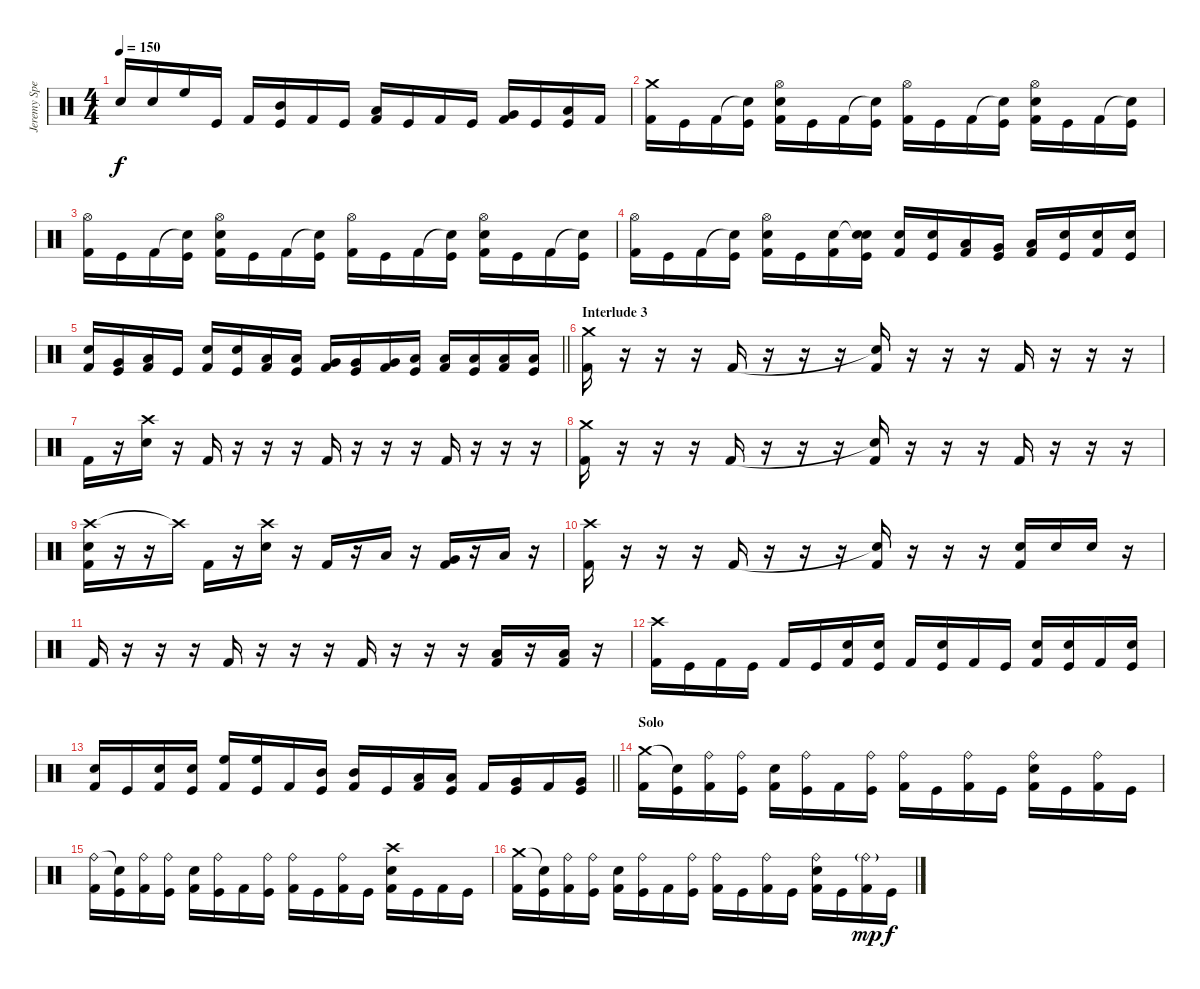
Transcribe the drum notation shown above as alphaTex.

\track ("Jeremy Spencer" "Jeremy Spe") {instrument percussion}
\staff {score}
\articulation defaults
\ts (4 4)
\tempo 150
\clef neutral
\ks c "Snare (hit) 2".16{dy f} "Snare (hit) 2".16 "High Floor Tom (hit)".16 "Kick (hit)".16 "Kick (hit) 2".16
("Mid Tom (hit)" "Kick (hit)").16 "Kick (hit) 2".16 "Kick (hit)".16 ("Low Tom (hit)" "Kick (hit) 2").16 "Kick (hit)".16 "Kick (hit) 2".16 "Kick (hit)".16 ("Very Low Tom (hit)" "Kick (hit) 2").16 "Kick (hit)".16 ("Low Floor Tom (hit)" "Kick (hit)").16 "Kick (hit) 2".16 |
("Crash medium (hit)" "Kick (hit) 2").16 "Kick (hit)".16 "Kick (hit) 2".16 ("Snare (hit)"{t} "Kick (hit)").16 ("Hi-Hat (open)" "Snare (hit) 2" "Kick (hit) 2").16 "Kick (hit)".16 "Kick (hit) 2".16 ("Snare (hit)"{t} "Kick (hit)").16 ("Hi-Hat (open)" "Kick (hit) 2").16 "Kick (hit)".16 "Kick (hit) 2".16 ("Snare (hit)"{t} "Kick (hit)").16 ("Hi-Hat (open)" "Snare (hit) 2" "Kick (hit) 2").16 "Kick (hit)".16 "Kick (hit) 2".16 ("Snare (hit)"{t} "Kick (hit)").16 |
("Hi-Hat (open)" "Kick (hit) 2").16 "Kick (hit)".16 "Kick (hit) 2".16 ("Snare (hit)"{t} "Kick (hit)").16 ("Hi-Hat (open)" "Snare (hit) 2" "Kick (hit) 2").16 "Kick (hit)".16 "Kick (hit) 2".16 ("Snare (hit)"{t} "Kick (hit)").16 ("Hi-Hat (open)" "Kick (hit) 2").16 "Kick (hit)".16 "Kick (hit) 2".16 ("Snare (hit)"{t} "Kick (hit)").16 ("Hi-Hat (open)" "Snare (hit) 2" "Kick (hit) 2").16 "Kick (hit)".16 "Kick (hit) 2".16 ("Snare (hit)"{t} "Kick (hit)").16 |
("Hi-Hat (open)" "Kick (hit) 2").16 "Kick (hit)".16 "Kick (hit) 2".16 ("Snare (hit)"{t} "Kick (hit)").16 ("Hi-Hat (open)" "Snare (hit) 2" "Kick (hit) 2").16 "Kick (hit)".16 ("Snare (hit) 2" "Kick (hit) 2").16 ("Snare (hit)"{t} "Snare (hit) 2" "Kick (hit)").16 ("Snare (hit) 2" "Kick (hit) 2").16 ("Snare (hit) 2" "Kick (hit)").16 ("Low Tom (hit)" "Kick (hit) 2").16 ("Very Low Tom (hit)" "Kick (hit)").16 ("Low Floor Tom (hit)" "Kick (hit) 2").16 ("Snare (hit) 2" "Kick (hit)").16 ("Snare (hit) 2" "Kick (hit) 2").16 ("Snare (hit) 2" "Kick (hit)").16 |
\barLineRight lightlight
("Snare (hit) 2" "Kick (hit) 2").16 ("Very Low Tom (hit)" "Kick (hit)").16 ("Low Floor Tom (hit)" "Kick (hit) 2").16 "Kick (hit)".16 ("Snare (hit) 2" "Kick (hit) 2").16 ("Snare (hit) 2" "Kick (hit)").16 ("Low Tom (hit)" "Kick (hit) 2").16 ("Low Tom (hit)" "Kick (hit)").16 ("Very Low Tom (hit)" "Kick (hit) 2").16 ("Very Low Tom (hit)" "Kick (hit)").16 ("Very Low Tom (hit)" "Kick (hit) 2").16 ("Low Floor Tom (hit)" "Kick (hit)").16 ("Low Floor Tom (hit)" "Kick (hit) 2").16 ("Low Floor Tom (hit)" "Kick (hit)").16 ("Low Floor Tom (hit)" "Kick (hit) 2").16 ("Low Floor Tom (hit)" "Kick (hit)").16 |
\section ("" "Interlude 3")
("Crash medium (hit)" "Kick (hit) 2").16 r.16 r.16 r.16 "Kick (hit) 2".16 r.16 r.16 r.16 ("Snare (hit)"{t} "Kick (hit) 2").16 r.16 r.16 r.16 "Kick (hit) 2".16 r.16 r.16 r.16 |
"Kick (hit) 2".16 r.16 ("Crash high (hit)" "Snare (hit) 2").16 r.16 "Kick (hit) 2".16 r.16 r.16 r.16 "Kick (hit) 2".16 r.16 r.16 r.16 "Kick (hit) 2".16 r.16 r.16 r.16 |
("Crash medium (hit)" "Kick (hit) 2").16 r.16 r.16 r.16 "Kick (hit) 2".16 r.16 r.16 r.16 ("Snare (hit)"{t} "Kick (hit) 2").16 r.16 r.16 r.16 "Kick (hit) 2".16 r.16 r.16 r.16 |
("Crash high (hit)" "Snare (hit) 2" "Kick (hit) 2").16 r.16 r.16 "Crash high (hit)"{t}.16 "Kick (hit) 2".16 r.16 ("Crash high (hit)" "Snare (hit) 2").16 r.16 "Kick (hit) 2".16 r.16 "Low Tom (hit)".16 r.16 ("Very Low Tom (hit)" "Kick (hit) 2").16 r.16 "Low Floor Tom (hit)".16 r.16 |
("Crash high (hit)" "Kick (hit) 2").16 r.16 r.16 r.16 "Kick (hit) 2".16 r.16 r.16 r.16 ("Snare (hit)"{t} "Kick (hit) 2").16 r.16 r.16 r.16 ("Snare (hit) 2" "Kick (hit) 2").16 "Snare (hit) 2".16 "Snare (hit) 2".16 r.16 |
"Kick (hit) 2".16 r.16 r.16 r.16 "Kick (hit) 2".16 r.16 r.16 r.16 "Kick (hit) 2".16 r.16 r.16 r.16 ("Low Floor Tom (hit)" "Kick (hit) 2").16 r.16 ("Low Floor Tom (hit)" "Kick (hit) 2").16 r.16 |
("Crash high (hit)" "Kick (hit) 2").16 "Kick (hit)".16 "Kick (hit) 2".16 "Kick (hit)".16 "Kick (hit) 2".16 "Kick (hit)".16 ("Snare (hit) 2" "Kick (hit) 2").16 ("Snare (hit) 2" "Kick (hit)").16 "Kick (hit) 2".16 ("Snare (hit) 2" "Kick (hit)").16 "Kick (hit) 2".16 "Kick (hit)".16 ("Snare (hit) 2" "Kick (hit) 2").16 ("Snare (hit) 2" "Kick (hit)").16 "Kick (hit) 2".16 ("Snare (hit) 2" "Kick (hit)").16 |
\barLineRight lightlight
("Snare (hit) 2" "Kick (hit) 2").16 "Kick (hit)".16 ("Snare (hit) 2" "Kick (hit) 2").16 ("Snare (hit) 2" "Kick (hit)").16 ("High Floor Tom (hit)" "Kick (hit) 2").16 ("High Floor Tom (hit)" "Kick (hit)").16 "Kick (hit) 2".16 ("Mid Tom (hit)" "Kick (hit)").16 ("Mid Tom (hit)" "Kick (hit) 2").16 "Kick (hit)".16 ("Low Tom (hit)" "Kick (hit) 2").16 ("Low Tom (hit)" "Kick (hit)").16 "Kick (hit) 2".16 ("Very Low Tom (hit)" "Kick (hit)").16 "Kick (hit) 2".16 ("Very Low Tom (hit)" "Kick (hit)").16 |
\section ("" "Solo")
("Crash medium (hit)" "Kick (hit) 2").16 ("Snare (hit)"{t} "Kick (hit)").16 ("Ride (bell)" "Kick (hit) 2").16 ("Ride (bell)" "Kick (hit)").16 ("Snare (hit) 2" "Kick (hit) 2").16 ("Ride (bell)" "Kick (hit)").16 "Kick (hit) 2".16 ("Ride (bell)" "Kick (hit)").16 ("Ride (bell)" "Kick (hit) 2").16 "Kick (hit)".16 ("Ride (bell)" "Kick (hit) 2").16 "Kick (hit)".16 ("Ride (bell)" "Snare (hit) 2" "Kick (hit) 2").16 "Kick (hit)".16 ("Ride (bell)" "Kick (hit) 2").16 "Kick (hit)".16 |
("Ride (bell)" "Kick (hit) 2").16 ("Snare (hit)"{t} "Kick (hit)").16 ("Ride (bell)" "Kick (hit) 2").16 ("Ride (bell)" "Kick (hit)").16 ("Snare (hit) 2" "Kick (hit) 2").16 ("Ride (bell)" "Kick (hit)").16 "Kick (hit) 2".16 ("Ride (bell)" "Kick (hit)").16 ("Ride (bell)" "Kick (hit) 2").16 "Kick (hit)".16 ("Ride (bell)" "Kick (hit) 2").16 "Kick (hit)".16 ("Crash high (hit)" "Snare (hit) 2" "Kick (hit) 2").16 "Kick (hit)".16 "Kick (hit) 2".16 "Kick (hit)".16 |
("Crash medium (hit)" "Kick (hit) 2").16 ("Snare (hit)"{t} "Kick (hit)").16 ("Ride (bell)" "Kick (hit) 2").16 ("Ride (bell)" "Kick (hit)").16 ("Snare (hit) 2" "Kick (hit) 2").16 ("Ride (bell)" "Kick (hit)").16 "Kick (hit) 2".16 ("Ride (bell)" "Kick (hit)").16 ("Ride (bell)" "Kick (hit) 2").16 "Kick (hit)".16 ("Ride (bell)" "Kick (hit) 2").16 "Kick (hit)".16 ("Ride (bell)" "Snare (hit) 2" "Kick (hit) 2").16 "Kick (hit)".16 ("Ride (bell)"{g} "Kick (hit) 2").16{dy mp} "Kick (hit)".16{dy f}
